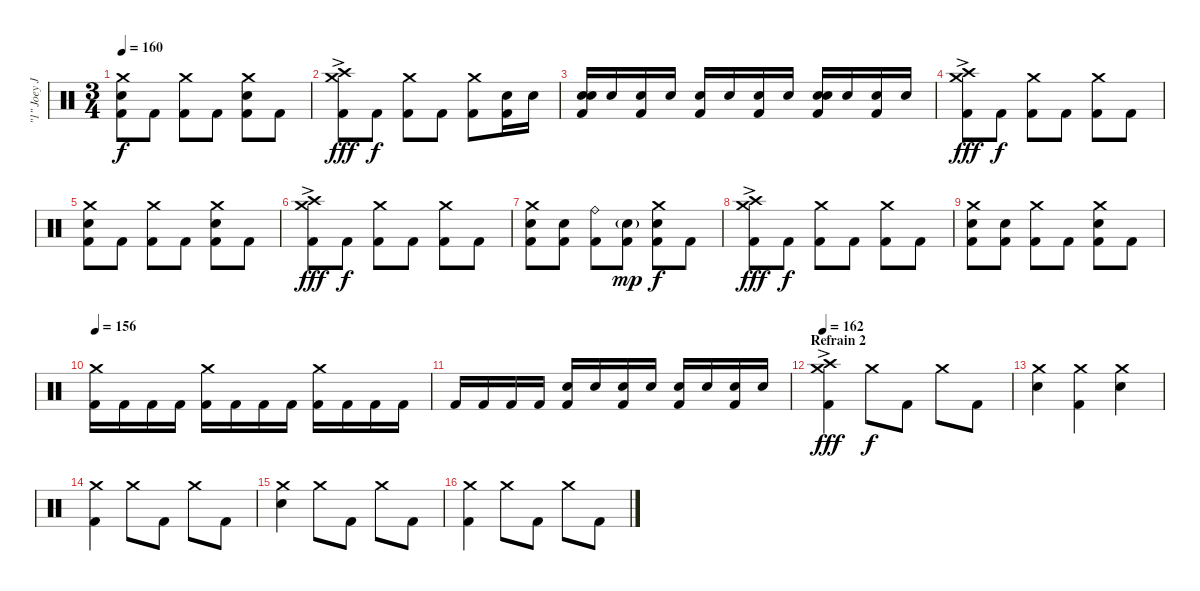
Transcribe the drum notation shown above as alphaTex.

\track ("\"1\" Joey Jordison (Drums)" "\"1\" Joey J") {instrument percussion}
\staff {score}
\articulation defaults
\ts (3 4)
\tempo 160
\clef neutral
\ks c
("Crash medium (hit)" "Electric Snare (hit)" "Kick (hit) 2").8{dy f} "Kick (hit) 2".8 ("Crash medium (hit)" "Kick (hit) 2").8 "Kick (hit) 2".8 ("Crash medium (hit)" "Electric Snare (hit)" "Kick (hit) 2").8 "Kick (hit) 2".8 |
("Crash high (hit)"{ac} "Crash medium (hit)" "Kick (hit) 2").8{dy fff} "Kick (hit) 2".8{dy f} ("Crash medium (hit)" "Kick (hit) 2").8 "Kick (hit) 2".8 ("Crash medium (hit)" "Kick (hit) 2").8 ("Electric Snare (hit)" "Kick (hit) 2").16 "Electric Snare (hit)".16 |
("Electric Snare (hit)" "Electric Snare (hit)" "Kick (hit) 2").16{bd 60} "Electric Snare (hit)".16 ("Electric Snare (hit)" "Kick (hit) 2").16 "Electric Snare (hit)".16 ("Electric Snare (hit)" "Kick (hit) 2").16 "Electric Snare (hit)".16 ("Electric Snare (hit)" "Kick (hit) 2").16 "Electric Snare (hit)".16 ("Electric Snare (hit)" "Electric Snare (hit)" "Kick (hit) 2").16{bd 60} "Electric Snare (hit)".16 ("Electric Snare (hit)" "Kick (hit) 2").16 "Electric Snare (hit)".16 |
("Crash high (hit)"{ac} "Crash medium (hit)" "Kick (hit) 2").8{dy fff} "Kick (hit) 2".8{dy f} ("Crash medium (hit)" "Kick (hit) 2").8 "Kick (hit) 2".8 ("Crash medium (hit)" "Kick (hit) 2").8 "Kick (hit) 2".8 |
("Crash medium (hit)" "Electric Snare (hit)" "Kick (hit) 2").8 "Kick (hit) 2".8 ("Crash medium (hit)" "Kick (hit) 2").8 "Kick (hit) 2".8 ("Crash medium (hit)" "Electric Snare (hit)" "Kick (hit) 2").8 "Kick (hit) 2".8 |
("Crash high (hit)"{ac} "Crash medium (hit)" "Kick (hit) 2").8{dy fff} "Kick (hit) 2".8{dy f} ("Crash medium (hit)" "Kick (hit) 2").8 "Kick (hit) 2".8 ("Crash medium (hit)" "Kick (hit) 2").8 "Kick (hit) 2".8 |
("Crash medium (hit)" "Electric Snare (hit)" "Kick (hit) 2").8 ("Electric Snare (hit)" "Kick (hit) 2").8 ("Ride (bell)" "Kick (hit) 2").8 ("Electric Snare (hit)"{g} "Kick (hit) 2").8{dy mp} ("Crash medium (hit)" "Electric Snare (hit)" "Kick (hit) 2").8{dy f} "Kick (hit) 2".8 |
("Crash high (hit)"{ac} "Crash medium (hit)" "Kick (hit) 2").8{dy fff} "Kick (hit) 2".8{dy f} ("Crash medium (hit)" "Kick (hit) 2").8 "Kick (hit) 2".8 ("Crash medium (hit)" "Kick (hit) 2").8 "Kick (hit) 2".8 |
("Crash medium (hit)" "Electric Snare (hit)" "Kick (hit) 2").8 ("Electric Snare (hit)" "Kick (hit) 2").8 ("Crash medium (hit)" "Kick (hit) 2").8 "Kick (hit) 2".8 ("Crash medium (hit)" "Electric Snare (hit)" "Kick (hit) 2").8 "Kick (hit) 2".8 |
\tempo 156
("Crash medium (hit)" "Kick (hit) 2").16 "Kick (hit) 2".16 "Kick (hit) 2".16 "Kick (hit) 2".16 ("Crash medium (hit)" "Kick (hit) 2").16 "Kick (hit) 2".16 "Kick (hit) 2".16 "Kick (hit) 2".16 ("Crash medium (hit)" "Kick (hit) 2").16 "Kick (hit) 2".16 "Kick (hit) 2".16 "Kick (hit) 2".16 |
"Kick (hit) 2".16 "Kick (hit) 2".16 "Kick (hit) 2".16 "Kick (hit) 2".16 ("Electric Snare (hit)" "Kick (hit) 2").16 "Electric Snare (hit)".16 ("Electric Snare (hit)" "Kick (hit) 2").16 "Electric Snare (hit)".16 ("Electric Snare (hit)" "Kick (hit) 2").16 "Electric Snare (hit)".16 ("Electric Snare (hit)" "Kick (hit) 2").16 "Electric Snare (hit)".16 |
\section ("" "Refrain 2")
\tempo 162
("Crash high (hit)"{ac} "Crash medium (hit)" "Kick (hit) 2").4{dy fff} "Crash medium (hit)".8{dy f} "Kick (hit) 2".8 "Crash medium (hit)".8 "Kick (hit) 2".8 |
("Crash medium (hit)" "Electric Snare (hit)").4 ("Crash medium (hit)" "Kick (hit) 2").4 ("Crash medium (hit)" "Electric Snare (hit)").4 |
("Crash medium (hit)" "Kick (hit) 2").4 "Crash medium (hit)".8 "Kick (hit) 2".8 "Crash medium (hit)".8 "Kick (hit) 2".8 |
("Crash medium (hit)" "Electric Snare (hit)").4 "Crash medium (hit)".8 "Kick (hit) 2".8 "Crash medium (hit)".8 "Kick (hit) 2".8 |
("Crash medium (hit)" "Kick (hit) 2").4 "Crash medium (hit)".8 "Kick (hit) 2".8 "Crash medium (hit)".8 "Kick (hit) 2".8
